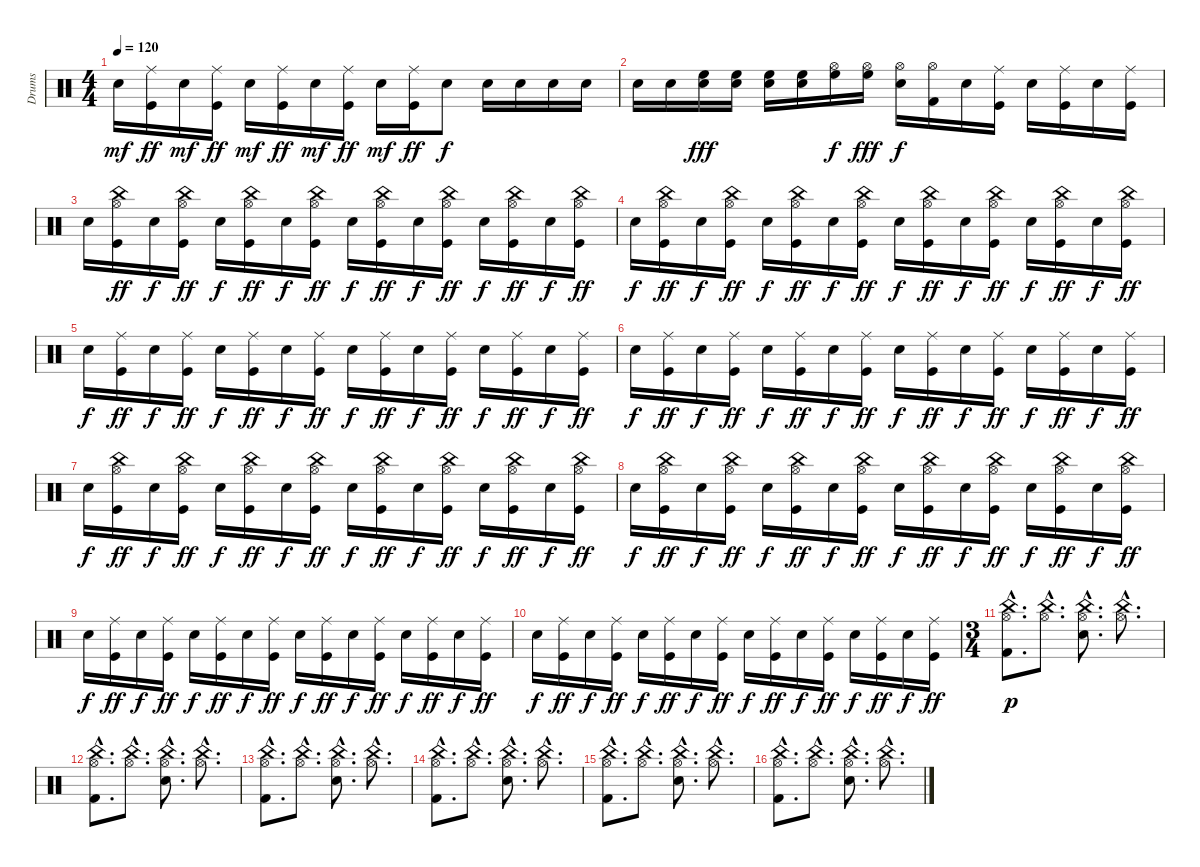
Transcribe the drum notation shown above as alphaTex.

\track ("Drums" "Drums") {instrument percussion}
\staff {score}
\articulation defaults
\ts (4 4)
\tempo 120
\clef neutral
\ks c "Electric Snare (hit)".16{dy mf}
("Ride (middle)" "Kick (hit)").16{dy ff} "Electric Snare (hit)".16{dy mf} ("Ride (middle)" "Kick (hit)").16{dy ff} "Electric Snare (hit)".16{dy mf} ("Ride (middle)" "Kick (hit)").16{dy ff} "Electric Snare (hit)".16{dy mf} ("Ride (middle)" "Kick (hit)").16{dy ff} "Electric Snare (hit)".16{dy mf} ("Ride (middle)" "Kick (hit)").16{dy ff} "Electric Snare (hit)".8{dy f} "Electric Snare (hit)".16 "Electric Snare (hit)".16 "Electric Snare (hit)".16 "Electric Snare (hit)".16 |
"Electric Snare (hit)".16 "Electric Snare (hit)".16 ("Electric Snare (hit)" "High Floor Tom (hit)").16{dy fff} ("Electric Snare (hit)" "High Floor Tom (hit)").16 ("Electric Snare (hit)" "High Floor Tom (hit)").16 ("Electric Snare (hit)" "High Floor Tom (hit)").16 ("Hi-Hat (open)" "High Floor Tom (hit)").16{dy f} ("Hi-Hat (open)" "High Floor Tom (hit)").16{dy fff} ("Hi-Hat (open)" "Electric Snare (hit)").16{dy f} ("Hi-Hat (open)" "Kick (hit) 2").16 "Electric Snare (hit)".16 ("Ride (middle)" "Kick (hit)").16 "Electric Snare (hit)".16 ("Ride (middle)" "Kick (hit)").16 "Electric Snare (hit)".16 ("Ride (middle)" "Kick (hit)").16 |
"Electric Snare (hit)".16 ("China (hit)" "Hi-Hat (open)" "Kick (hit)").16{dy ff} "Electric Snare (hit)".16{dy f} ("China (hit)" "Hi-Hat (open)" "Kick (hit)").16{dy ff} "Electric Snare (hit)".16{dy f} ("China (hit)" "Hi-Hat (open)" "Kick (hit)").16{dy ff} "Electric Snare (hit)".16{dy f} ("China (hit)" "Hi-Hat (open)" "Kick (hit)").16{dy ff} "Electric Snare (hit)".16{dy f} ("China (hit)" "Hi-Hat (open)" "Kick (hit)").16{dy ff} "Electric Snare (hit)".16{dy f} ("China (hit)" "Hi-Hat (open)" "Kick (hit)").16{dy ff} "Electric Snare (hit)".16{dy f} ("China (hit)" "Hi-Hat (open)" "Kick (hit)").16{dy ff} "Electric Snare (hit)".16{dy f} ("China (hit)" "Hi-Hat (open)" "Kick (hit)").16{dy ff} |
"Electric Snare (hit)".16{dy f} ("China (hit)" "Hi-Hat (open)" "Kick (hit)").16{dy ff} "Electric Snare (hit)".16{dy f} ("China (hit)" "Hi-Hat (open)" "Kick (hit)").16{dy ff} "Electric Snare (hit)".16{dy f} ("China (hit)" "Hi-Hat (open)" "Kick (hit)").16{dy ff} "Electric Snare (hit)".16{dy f} ("China (hit)" "Hi-Hat (open)" "Kick (hit)").16{dy ff} "Electric Snare (hit)".16{dy f} ("China (hit)" "Hi-Hat (open)" "Kick (hit)").16{dy ff} "Electric Snare (hit)".16{dy f} ("China (hit)" "Hi-Hat (open)" "Kick (hit)").16{dy ff} "Electric Snare (hit)".16{dy f} ("China (hit)" "Hi-Hat (open)" "Kick (hit)").16{dy ff} "Electric Snare (hit)".16{dy f} ("China (hit)" "Hi-Hat (open)" "Kick (hit)").16{dy ff} |
"Electric Snare (hit)".16{dy f} ("Ride (middle)" "Kick (hit)").16{dy ff} "Electric Snare (hit)".16{dy f} ("Ride (middle)" "Kick (hit)").16{dy ff} "Electric Snare (hit)".16{dy f} ("Ride (middle)" "Kick (hit)").16{dy ff} "Electric Snare (hit)".16{dy f} ("Ride (middle)" "Kick (hit)").16{dy ff} "Electric Snare (hit)".16{dy f} ("Ride (middle)" "Kick (hit)").16{dy ff} "Electric Snare (hit)".16{dy f} ("Ride (middle)" "Kick (hit)").16{dy ff} "Electric Snare (hit)".16{dy f} ("Ride (middle)" "Kick (hit)").16{dy ff} "Electric Snare (hit)".16{dy f} ("Ride (middle)" "Kick (hit)").16{dy ff} |
"Electric Snare (hit)".16{dy f} ("Ride (middle)" "Kick (hit)").16{dy ff} "Electric Snare (hit)".16{dy f} ("Ride (middle)" "Kick (hit)").16{dy ff} "Electric Snare (hit)".16{dy f} ("Ride (middle)" "Kick (hit)").16{dy ff} "Electric Snare (hit)".16{dy f} ("Ride (middle)" "Kick (hit)").16{dy ff} "Electric Snare (hit)".16{dy f} ("Ride (middle)" "Kick (hit)").16{dy ff} "Electric Snare (hit)".16{dy f} ("Ride (middle)" "Kick (hit)").16{dy ff} "Electric Snare (hit)".16{dy f} ("Ride (middle)" "Kick (hit)").16{dy ff} "Electric Snare (hit)".16{dy f} ("Ride (middle)" "Kick (hit)").16{dy ff} |
"Electric Snare (hit)".16{dy f} ("China (hit)" "Hi-Hat (open)" "Kick (hit)").16{dy ff} "Electric Snare (hit)".16{dy f} ("China (hit)" "Hi-Hat (open)" "Kick (hit)").16{dy ff} "Electric Snare (hit)".16{dy f} ("China (hit)" "Hi-Hat (open)" "Kick (hit)").16{dy ff} "Electric Snare (hit)".16{dy f} ("China (hit)" "Hi-Hat (open)" "Kick (hit)").16{dy ff} "Electric Snare (hit)".16{dy f} ("China (hit)" "Hi-Hat (open)" "Kick (hit)").16{dy ff} "Electric Snare (hit)".16{dy f} ("China (hit)" "Hi-Hat (open)" "Kick (hit)").16{dy ff} "Electric Snare (hit)".16{dy f} ("China (hit)" "Hi-Hat (open)" "Kick (hit)").16{dy ff} "Electric Snare (hit)".16{dy f} ("China (hit)" "Hi-Hat (open)" "Kick (hit)").16{dy ff} |
"Electric Snare (hit)".16{dy f} ("China (hit)" "Hi-Hat (open)" "Kick (hit)").16{dy ff} "Electric Snare (hit)".16{dy f} ("China (hit)" "Hi-Hat (open)" "Kick (hit)").16{dy ff} "Electric Snare (hit)".16{dy f} ("China (hit)" "Hi-Hat (open)" "Kick (hit)").16{dy ff} "Electric Snare (hit)".16{dy f} ("China (hit)" "Hi-Hat (open)" "Kick (hit)").16{dy ff} "Electric Snare (hit)".16{dy f} ("China (hit)" "Hi-Hat (open)" "Kick (hit)").16{dy ff} "Electric Snare (hit)".16{dy f} ("China (hit)" "Hi-Hat (open)" "Kick (hit)").16{dy ff} "Electric Snare (hit)".16{dy f} ("China (hit)" "Hi-Hat (open)" "Kick (hit)").16{dy ff} "Electric Snare (hit)".16{dy f} ("China (hit)" "Hi-Hat (open)" "Kick (hit)").16{dy ff} |
"Electric Snare (hit)".16{dy f} ("Ride (middle)" "Kick (hit)").16{dy ff} "Electric Snare (hit)".16{dy f} ("Ride (middle)" "Kick (hit)").16{dy ff} "Electric Snare (hit)".16{dy f} ("Ride (middle)" "Kick (hit)").16{dy ff} "Electric Snare (hit)".16{dy f} ("Ride (middle)" "Kick (hit)").16{dy ff} "Electric Snare (hit)".16{dy f} ("Ride (middle)" "Kick (hit)").16{dy ff} "Electric Snare (hit)".16{dy f} ("Ride (middle)" "Kick (hit)").16{dy ff} "Electric Snare (hit)".16{dy f} ("Ride (middle)" "Kick (hit)").16{dy ff} "Electric Snare (hit)".16{dy f} ("Ride (middle)" "Kick (hit)").16{dy ff} |
"Electric Snare (hit)".16{dy f} ("Ride (middle)" "Kick (hit)").16{dy ff} "Electric Snare (hit)".16{dy f} ("Ride (middle)" "Kick (hit)").16{dy ff} "Electric Snare (hit)".16{dy f} ("Ride (middle)" "Kick (hit)").16{dy ff} "Electric Snare (hit)".16{dy f} ("Ride (middle)" "Kick (hit)").16{dy ff} "Electric Snare (hit)".16{dy f} ("Ride (middle)" "Kick (hit)").16{dy ff} "Electric Snare (hit)".16{dy f} ("Ride (middle)" "Kick (hit)").16{dy ff} "Electric Snare (hit)".16{dy f} ("Ride (middle)" "Kick (hit)").16{dy ff} "Electric Snare (hit)".16{dy f} ("Ride (middle)" "Kick (hit)").16{dy ff} |
\ts (3 4)
("China (hit)"{hac} "Hi-Hat (open)"{hac} "Kick (hit) 2"{hac}).8{d dy p} ("China (hit)"{hac} "Hi-Hat (open)"{hac}).8{d} ("China (hit)"{hac} "Hi-Hat (open)"{hac} "Electric Snare (hit)"{hac}).8{d} ("China (hit)"{hac} "Hi-Hat (open)"{hac}).8{d} |
("China (hit)"{hac} "Hi-Hat (open)"{hac} "Kick (hit) 2"{hac}).8{d} ("China (hit)"{hac} "Hi-Hat (open)"{hac}).8{d} ("China (hit)"{hac} "Hi-Hat (open)"{hac} "Electric Snare (hit)"{hac}).8{d} ("China (hit)"{hac} "Hi-Hat (open)"{hac}).8{d} |
("China (hit)"{hac} "Hi-Hat (open)"{hac} "Kick (hit) 2"{hac}).8{d} ("China (hit)"{hac} "Hi-Hat (open)"{hac}).8{d} ("China (hit)"{hac} "Hi-Hat (open)"{hac} "Electric Snare (hit)"{hac}).8{d} ("China (hit)"{hac} "Hi-Hat (open)"{hac}).8{d} |
("China (hit)"{hac} "Hi-Hat (open)"{hac} "Kick (hit) 2"{hac}).8{d} ("China (hit)"{hac} "Hi-Hat (open)"{hac}).8{d} ("China (hit)"{hac} "Hi-Hat (open)"{hac} "Electric Snare (hit)"{hac}).8{d} ("China (hit)"{hac} "Hi-Hat (open)"{hac}).8{d} |
("China (hit)"{hac} "Hi-Hat (open)"{hac} "Kick (hit) 2"{hac}).8{d} ("China (hit)"{hac} "Hi-Hat (open)"{hac}).8{d} ("China (hit)"{hac} "Hi-Hat (open)"{hac} "Electric Snare (hit)"{hac}).8{d} ("China (hit)"{hac} "Hi-Hat (open)"{hac}).8{d} |
("China (hit)"{hac} "Hi-Hat (open)"{hac} "Kick (hit) 2"{hac}).8{d} ("China (hit)"{hac} "Hi-Hat (open)"{hac}).8{d} ("China (hit)"{hac} "Hi-Hat (open)"{hac} "Electric Snare (hit)"{hac}).8{d} ("China (hit)"{hac} "Hi-Hat (open)"{hac}).8{d}
